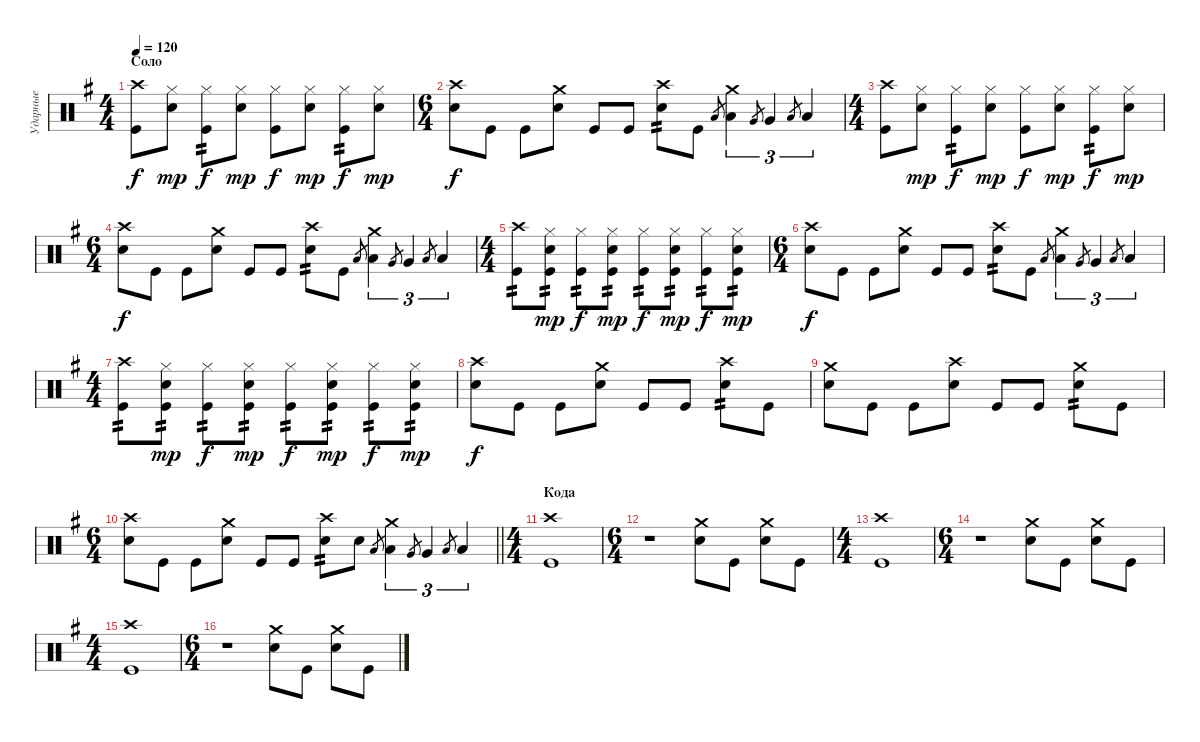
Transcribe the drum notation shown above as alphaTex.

\track ("Ударные" "Ударные") {instrument percussion}
\staff {score}
\articulation defaults
\ts (4 4)
\section ("" "Соло")
\tempo 120
\clef neutral
\ks eminor
("Crash high (hit)" "Kick (hit)").8{dy f} ("Hi-Hat (closed)" "Snare (hit) 2").8{dy mp} ("Hi-Hat (closed)" "Kick (hit)").8{tp 2 dy f} ("Hi-Hat (closed)" "Snare (hit) 2").8{dy mp} ("Hi-Hat (closed)" "Kick (hit)").8{dy f} ("Hi-Hat (closed)" "Snare (hit) 2").8{dy mp} ("Hi-Hat (closed)" "Kick (hit)").8{tp 2 dy f} ("Hi-Hat (closed)" "Snare (hit) 2").8{dy mp} |
\ts (6 4)
("Crash high (hit)" "Snare (hit) 2").8{dy f} "Kick (hit)".8 "Kick (hit)".8 ("Crash medium (hit)" "Snare (hit) 2").8 "Kick (hit)".8 "Kick (hit)".8 ("Crash high (hit)" "Snare (hit) 2").8{tp 2} "Kick (hit)".8 "Low Tom (hit)".8{gr} ("Crash medium (hit)" "Low Tom (hit)").4{tu (3 2)} "Very Low Tom (hit)".8{gr} "Very Low Tom (hit)".4{tu (3 2)} "Low Floor Tom (hit)".8{gr} "Low Floor Tom (hit)".4{tu (3 2)} |
\ts (4 4)
("Crash high (hit)" "Kick (hit)").8 ("Hi-Hat (closed)" "Snare (hit) 2").8{dy mp} ("Hi-Hat (closed)" "Kick (hit)").8{tp 2 dy f} ("Hi-Hat (closed)" "Snare (hit) 2").8{dy mp} ("Hi-Hat (closed)" "Kick (hit)").8{dy f} ("Hi-Hat (closed)" "Snare (hit) 2").8{dy mp} ("Hi-Hat (closed)" "Kick (hit)").8{tp 2 dy f} ("Hi-Hat (closed)" "Snare (hit) 2").8{dy mp} |
\ts (6 4)
("Crash high (hit)" "Snare (hit) 2").8{dy f} "Kick (hit)".8 "Kick (hit)".8 ("Crash medium (hit)" "Snare (hit) 2").8 "Kick (hit)".8 "Kick (hit)".8 ("Crash high (hit)" "Snare (hit) 2").8{tp 2} "Kick (hit)".8 "Low Tom (hit)".8{gr} ("Crash medium (hit)" "Low Tom (hit)").4{tu (3 2)} "Very Low Tom (hit)".8{gr} "Very Low Tom (hit)".4{tu (3 2)} "Low Floor Tom (hit)".8{gr} "Low Floor Tom (hit)".4{tu (3 2)} |
\ts (4 4)
("Crash high (hit)" "Kick (hit)").8{tp 2} ("Hi-Hat (closed)" "Snare (hit) 2" "Kick (hit)").8{tp 2 dy mp} ("Hi-Hat (closed)" "Kick (hit)").8{tp 2 dy f} ("Hi-Hat (closed)" "Snare (hit) 2" "Kick (hit)").8{tp 2 dy mp} ("Hi-Hat (closed)" "Kick (hit)").8{tp 2 dy f} ("Hi-Hat (closed)" "Snare (hit) 2" "Kick (hit)").8{tp 2 dy mp} ("Hi-Hat (closed)" "Kick (hit)").8{tp 2 dy f} ("Hi-Hat (closed)" "Snare (hit) 2" "Kick (hit)").8{tp 2 dy mp} |
\ts (6 4)
("Crash high (hit)" "Snare (hit) 2").8{dy f} "Kick (hit)".8 "Kick (hit)".8 ("Crash medium (hit)" "Snare (hit) 2").8 "Kick (hit)".8 "Kick (hit)".8 ("Crash high (hit)" "Snare (hit) 2").8{tp 2} "Kick (hit)".8 "Low Tom (hit)".8{gr} ("Crash medium (hit)" "Low Tom (hit)").4{tu (3 2)} "Very Low Tom (hit)".8{gr} "Very Low Tom (hit)".4{tu (3 2)} "Low Floor Tom (hit)".8{gr} "Low Floor Tom (hit)".4{tu (3 2)} |
\ts (4 4)
("Crash high (hit)" "Kick (hit)").8{tp 2} ("Hi-Hat (closed)" "Snare (hit) 2" "Kick (hit)").8{tp 2 dy mp} ("Hi-Hat (closed)" "Kick (hit)").8{tp 2 dy f} ("Hi-Hat (closed)" "Snare (hit) 2" "Kick (hit)").8{tp 2 dy mp} ("Hi-Hat (closed)" "Kick (hit)").8{tp 2 dy f} ("Hi-Hat (closed)" "Snare (hit) 2" "Kick (hit)").8{tp 2 dy mp} ("Hi-Hat (closed)" "Kick (hit)").8{tp 2 dy f} ("Hi-Hat (closed)" "Snare (hit) 2" "Kick (hit)").8{tp 2 dy mp} |
("Crash high (hit)" "Snare (hit) 2").8{dy f} "Kick (hit)".8 "Kick (hit)".8 ("Crash medium (hit)" "Snare (hit) 2").8 "Kick (hit)".8 "Kick (hit)".8 ("Crash high (hit)" "Snare (hit) 2").8{tp 2} "Kick (hit)".8 |
("Crash medium (hit)" "Snare (hit) 2").8 "Kick (hit)".8 "Kick (hit)".8 ("Crash high (hit)" "Snare (hit) 2").8 "Kick (hit)".8 "Kick (hit)".8 ("Crash medium (hit)" "Snare (hit) 2").8{tp 2} "Kick (hit)".8 |
\ts (6 4)
\barLineRight lightlight
("Crash high (hit)" "Snare (hit) 2").8 "Kick (hit)".8 "Kick (hit)".8 ("Crash medium (hit)" "Snare (hit) 2").8 "Kick (hit)".8 "Kick (hit)".8 ("Crash high (hit)" "Snare (hit) 2").8{tp 2} "Snare (hit) 2".8 "Low Tom (hit)".8{gr} ("Crash medium (hit)" "Low Tom (hit)").4{tu (3 2)} "Very Low Tom (hit)".8{gr} "Very Low Tom (hit)".4{tu (3 2)} "Low Floor Tom (hit)".8{gr} "Low Floor Tom (hit)".4{tu (3 2)} |
\ts (4 4)
\section ("" "Кода")
("Crash high (hit)" "Kick (hit)").1 |
\ts (6 4)
r.1 ("Crash medium (hit)" "Snare (hit) 2").8 "Kick (hit)".8 ("Crash medium (hit)" "Snare (hit) 2").8 "Kick (hit)".8 |
\ts (4 4)
("Crash high (hit)" "Kick (hit)").1 |
\ts (6 4)
r.1 ("Crash medium (hit)" "Snare (hit) 2").8 "Kick (hit)".8 ("Crash medium (hit)" "Snare (hit) 2").8 "Kick (hit)".8 |
\ts (4 4)
("Crash high (hit)" "Kick (hit)").1 |
\ts (6 4)
r.1 ("Crash medium (hit)" "Snare (hit) 2").8 "Kick (hit)".8 ("Crash medium (hit)" "Snare (hit) 2").8 "Kick (hit)".8
